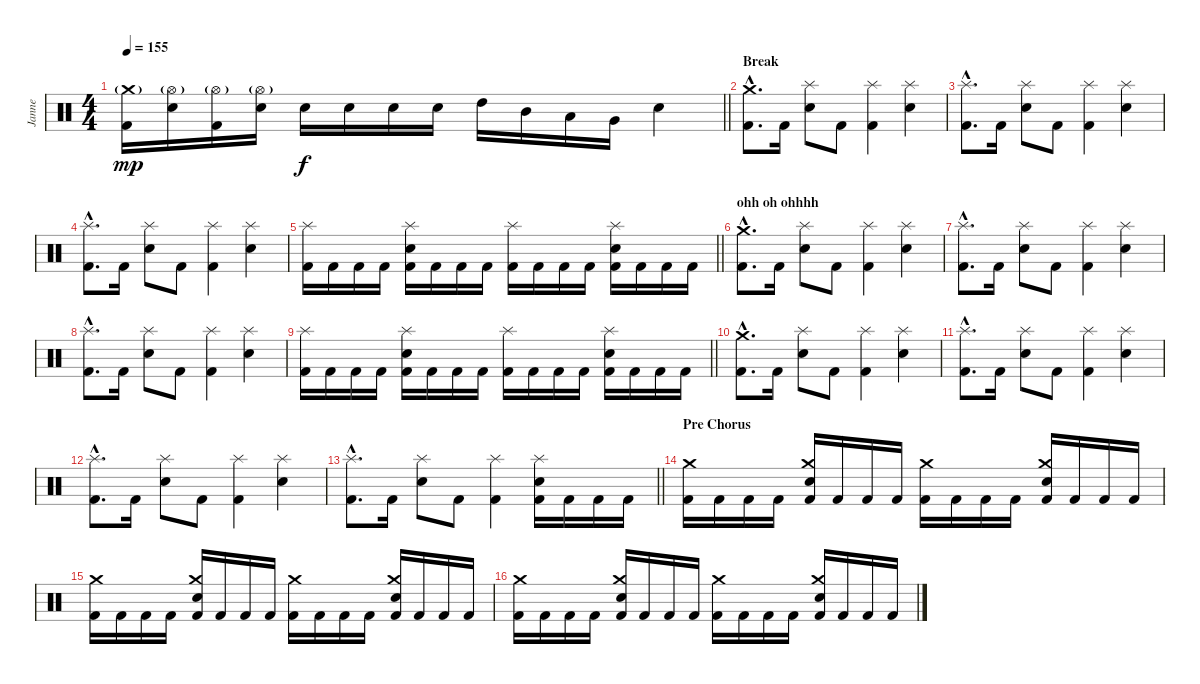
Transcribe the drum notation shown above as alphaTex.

\track ("Janne" "Janne") {instrument percussion}
\staff {score}
\articulation defaults
\ts (4 4)
\tempo 155
\clef neutral
\barLineRight lightlight
\ks c
("Kick (hit) 2" "Crash medium (hit)"{g}).16{dy mp} ("Snare (hit) 2" "Hi-Hat (open)"{g}).16 ("Kick (hit) 2" "Hi-Hat (open)"{g}).16 ("Snare (hit) 2" "Hi-Hat (open)"{g}).16 "Snare (hit) 2".16{dy f} "Snare (hit) 2".16 "Snare (hit) 2".16 "Snare (hit) 2".16 "High Tom (hit)".16 "Mid Tom (hit)".16 "Low Tom (hit)".16 "Very Low Tom (hit)".16 "Snare (hit) 2".4 |
\section ("" "Break")
("Kick (hit) 2"{hac} "Crash medium (hit)"{hac}).8{d} "Kick (hit) 2".16 ("Snare (hit) 2" "Splash (hit)").8 "Kick (hit) 2".8 ("Kick (hit) 2" "Splash (hit)").4 ("Snare (hit) 2" "Splash (hit)").4 |
("Kick (hit) 2"{hac} "Splash (hit)"{hac}).8{d} "Kick (hit) 2".16 ("Snare (hit) 2" "Splash (hit)").8 "Kick (hit) 2".8 ("Kick (hit) 2" "Splash (hit)").4 ("Snare (hit) 2" "Splash (hit)").4 |
("Kick (hit) 2"{hac} "Splash (hit)"{hac}).8{d} "Kick (hit) 2".16 ("Snare (hit) 2" "Splash (hit)").8 "Kick (hit) 2".8 ("Kick (hit) 2" "Splash (hit)").4 ("Snare (hit) 2" "Splash (hit)").4 |
\barLineRight lightlight
("Kick (hit) 2" "Splash (hit)").16 "Kick (hit) 2".16 "Kick (hit) 2".16 "Kick (hit) 2".16 ("Kick (hit) 2" "Snare (hit) 2" "Splash (hit)").16 "Kick (hit) 2".16 "Kick (hit) 2".16 "Kick (hit) 2".16 ("Kick (hit) 2" "Splash (hit)").16 "Kick (hit) 2".16 "Kick (hit) 2".16 "Kick (hit) 2".16 ("Kick (hit) 2" "Snare (hit) 2" "Splash (hit)").16 "Kick (hit) 2".16 "Kick (hit) 2".16 "Kick (hit) 2".16 |
\section ("" "ohh oh ohhhh")
("Kick (hit) 2"{hac} "Crash medium (hit)"{hac}).8{d} "Kick (hit) 2".16 ("Snare (hit) 2" "Splash (hit)").8 "Kick (hit) 2".8 ("Kick (hit) 2" "Splash (hit)").4 ("Snare (hit) 2" "Splash (hit)").4 |
("Kick (hit) 2"{hac} "Splash (hit)"{hac}).8{d} "Kick (hit) 2".16 ("Snare (hit) 2" "Splash (hit)").8 "Kick (hit) 2".8 ("Kick (hit) 2" "Splash (hit)").4 ("Snare (hit) 2" "Splash (hit)").4 |
("Kick (hit) 2"{hac} "Splash (hit)"{hac}).8{d} "Kick (hit) 2".16 ("Snare (hit) 2" "Splash (hit)").8 "Kick (hit) 2".8 ("Kick (hit) 2" "Splash (hit)").4 ("Snare (hit) 2" "Splash (hit)").4 |
\barLineRight lightlight
("Kick (hit) 2" "Splash (hit)").16 "Kick (hit) 2".16 "Kick (hit) 2".16 "Kick (hit) 2".16 ("Kick (hit) 2" "Snare (hit) 2" "Splash (hit)").16 "Kick (hit) 2".16 "Kick (hit) 2".16 "Kick (hit) 2".16 ("Kick (hit) 2" "Splash (hit)").16 "Kick (hit) 2".16 "Kick (hit) 2".16 "Kick (hit) 2".16 ("Kick (hit) 2" "Snare (hit) 2" "Splash (hit)").16 "Kick (hit) 2".16 "Kick (hit) 2".16 "Kick (hit) 2".16 |
("Kick (hit) 2"{hac} "Crash medium (hit)"{hac}).8{d} "Kick (hit) 2".16 ("Snare (hit) 2" "Splash (hit)").8 "Kick (hit) 2".8 ("Kick (hit) 2" "Splash (hit)").4 ("Snare (hit) 2" "Splash (hit)").4 |
("Kick (hit) 2"{hac} "Splash (hit)"{hac}).8{d} "Kick (hit) 2".16 ("Snare (hit) 2" "Splash (hit)").8 "Kick (hit) 2".8 ("Kick (hit) 2" "Splash (hit)").4 ("Snare (hit) 2" "Splash (hit)").4 |
("Kick (hit) 2"{hac} "Splash (hit)"{hac}).8{d} "Kick (hit) 2".16 ("Snare (hit) 2" "Splash (hit)").8 "Kick (hit) 2".8 ("Kick (hit) 2" "Splash (hit)").4 ("Snare (hit) 2" "Splash (hit)").4 |
\barLineRight lightlight
("Kick (hit) 2"{hac} "Splash (hit)"{hac}).8{d} "Kick (hit) 2".16 ("Snare (hit) 2" "Splash (hit)").8 "Kick (hit) 2".8 ("Kick (hit) 2" "Splash (hit)").4 ("Kick (hit) 2" "Snare (hit) 2" "Splash (hit)").16 "Kick (hit) 2".16 "Kick (hit) 2".16 "Kick (hit) 2".16 |
\section ("" "Pre Chorus")
("Kick (hit) 2" "Crash medium (hit)").16 "Kick (hit) 2".16 "Kick (hit) 2".16 "Kick (hit) 2".16 ("Kick (hit) 2" "Snare (hit) 2" "Crash medium (hit)").16 "Kick (hit) 2".16 "Kick (hit) 2".16 "Kick (hit) 2".16 ("Kick (hit) 2" "Crash medium (hit)").16 "Kick (hit) 2".16 "Kick (hit) 2".16 "Kick (hit) 2".16 ("Kick (hit) 2" "Snare (hit) 2" "Crash medium (hit)").16 "Kick (hit) 2".16 "Kick (hit) 2".16 "Kick (hit) 2".16 |
("Kick (hit) 2" "Crash medium (hit)").16 "Kick (hit) 2".16 "Kick (hit) 2".16 "Kick (hit) 2".16 ("Kick (hit) 2" "Snare (hit) 2" "Crash medium (hit)").16 "Kick (hit) 2".16 "Kick (hit) 2".16 "Kick (hit) 2".16 ("Kick (hit) 2" "Crash medium (hit)").16 "Kick (hit) 2".16 "Kick (hit) 2".16 "Kick (hit) 2".16 ("Kick (hit) 2" "Snare (hit) 2" "Crash medium (hit)").16 "Kick (hit) 2".16 "Kick (hit) 2".16 "Kick (hit) 2".16 |
("Kick (hit) 2" "Crash medium (hit)").16 "Kick (hit) 2".16 "Kick (hit) 2".16 "Kick (hit) 2".16 ("Kick (hit) 2" "Snare (hit) 2" "Crash medium (hit)").16 "Kick (hit) 2".16 "Kick (hit) 2".16 "Kick (hit) 2".16 ("Kick (hit) 2" "Crash medium (hit)").16 "Kick (hit) 2".16 "Kick (hit) 2".16 "Kick (hit) 2".16 ("Kick (hit) 2" "Snare (hit) 2" "Crash medium (hit)").16 "Kick (hit) 2".16 "Kick (hit) 2".16 "Kick (hit) 2".16
